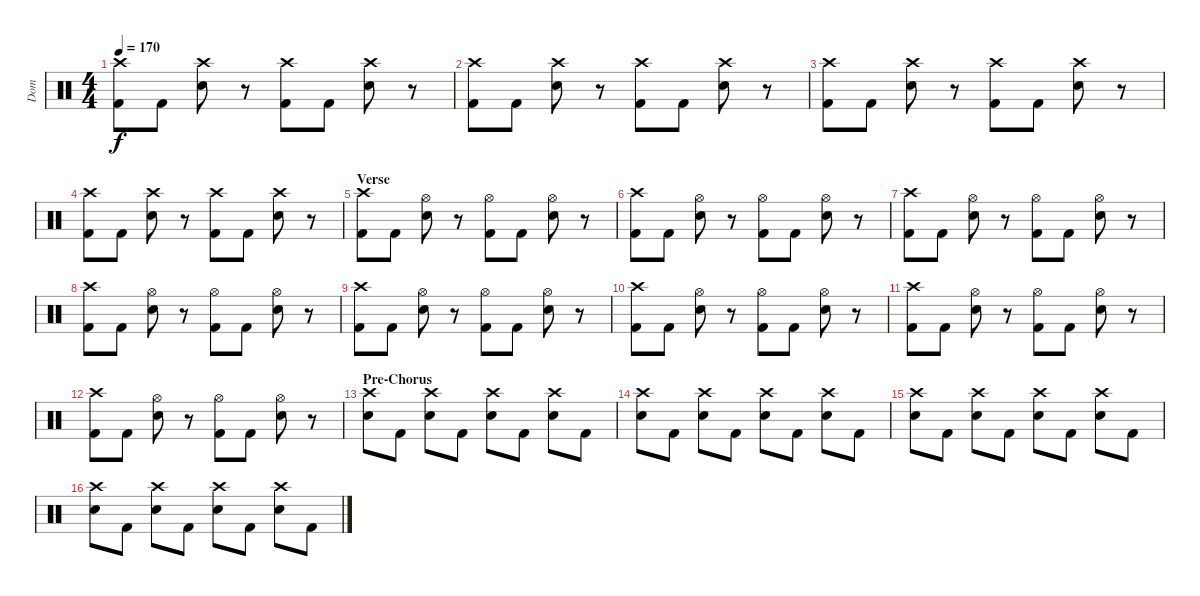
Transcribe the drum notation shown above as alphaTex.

\track ("Dom" "Dom") {instrument percussion}
\staff {score}
\articulation defaults
\ts (4 4)
\tempo 170
\clef neutral
\ks c
("Crash high (hit)" "Kick (hit) 2").8{dy f} "Kick (hit) 2".8 ("Crash high (hit)" "Electric Snare (hit)").8 r.8 ("Crash high (hit)" "Kick (hit) 2").8 "Kick (hit) 2".8 ("Crash high (hit)" "Electric Snare (hit)").8 r.8 |
("Crash high (hit)" "Kick (hit) 2").8 "Kick (hit) 2".8 ("Crash high (hit)" "Electric Snare (hit)").8 r.8 ("Crash high (hit)" "Kick (hit) 2").8 "Kick (hit) 2".8 ("Crash high (hit)" "Electric Snare (hit)").8 r.8 |
("Crash high (hit)" "Kick (hit) 2").8 "Kick (hit) 2".8 ("Crash high (hit)" "Electric Snare (hit)").8 r.8 ("Crash high (hit)" "Kick (hit) 2").8 "Kick (hit) 2".8 ("Crash high (hit)" "Electric Snare (hit)").8 r.8 |
("Crash high (hit)" "Kick (hit) 2").8 "Kick (hit) 2".8 ("Crash high (hit)" "Electric Snare (hit)").8 r.8 ("Crash high (hit)" "Kick (hit) 2").8 "Kick (hit) 2".8 ("Crash high (hit)" "Electric Snare (hit)").8 r.8 |
\section ("" "Verse")
("Crash high (hit)" "Kick (hit) 2").8 "Kick (hit) 2".8 ("Hi-Hat (open)" "Electric Snare (hit)").8 r.8 ("Hi-Hat (open)" "Kick (hit) 2").8 "Kick (hit) 2".8 ("Hi-Hat (open)" "Electric Snare (hit)").8 r.8 |
("Crash high (hit)" "Kick (hit) 2").8 "Kick (hit) 2".8 ("Hi-Hat (open)" "Electric Snare (hit)").8 r.8 ("Hi-Hat (open)" "Kick (hit) 2").8 "Kick (hit) 2".8 ("Hi-Hat (open)" "Electric Snare (hit)").8 r.8 |
("Crash high (hit)" "Kick (hit) 2").8 "Kick (hit) 2".8 ("Hi-Hat (open)" "Electric Snare (hit)").8 r.8 ("Hi-Hat (open)" "Kick (hit) 2").8 "Kick (hit) 2".8 ("Hi-Hat (open)" "Electric Snare (hit)").8 r.8 |
("Crash high (hit)" "Kick (hit) 2").8 "Kick (hit) 2".8 ("Hi-Hat (open)" "Electric Snare (hit)").8 r.8 ("Hi-Hat (open)" "Kick (hit) 2").8 "Kick (hit) 2".8 ("Hi-Hat (open)" "Electric Snare (hit)").8 r.8 |
("Crash high (hit)" "Kick (hit) 2").8 "Kick (hit) 2".8 ("Hi-Hat (open)" "Electric Snare (hit)").8 r.8 ("Hi-Hat (open)" "Kick (hit) 2").8 "Kick (hit) 2".8 ("Hi-Hat (open)" "Electric Snare (hit)").8 r.8 |
("Crash high (hit)" "Kick (hit) 2").8 "Kick (hit) 2".8 ("Hi-Hat (open)" "Electric Snare (hit)").8 r.8 ("Hi-Hat (open)" "Kick (hit) 2").8 "Kick (hit) 2".8 ("Hi-Hat (open)" "Electric Snare (hit)").8 r.8 |
("Crash high (hit)" "Kick (hit) 2").8 "Kick (hit) 2".8 ("Hi-Hat (open)" "Electric Snare (hit)").8 r.8 ("Hi-Hat (open)" "Kick (hit) 2").8 "Kick (hit) 2".8 ("Hi-Hat (open)" "Electric Snare (hit)").8 r.8 |
("Crash high (hit)" "Kick (hit) 2").8 "Kick (hit) 2".8 ("Hi-Hat (open)" "Electric Snare (hit)").8 r.8 ("Hi-Hat (open)" "Kick (hit) 2").8 "Kick (hit) 2".8 ("Hi-Hat (open)" "Electric Snare (hit)").8 r.8 |
\section ("" "Pre-Chorus")
("Crash high (hit)" "Electric Snare (hit)").8 "Kick (hit) 2".8 ("Crash high (hit)" "Electric Snare (hit)").8 "Kick (hit) 2".8 ("Crash high (hit)" "Electric Snare (hit)").8 "Kick (hit) 2".8 ("Crash high (hit)" "Electric Snare (hit)").8 "Kick (hit) 2".8 |
("Crash high (hit)" "Electric Snare (hit)").8 "Kick (hit) 2".8 ("Crash high (hit)" "Electric Snare (hit)").8 "Kick (hit) 2".8 ("Crash high (hit)" "Electric Snare (hit)").8 "Kick (hit) 2".8 ("Crash high (hit)" "Electric Snare (hit)").8 "Kick (hit) 2".8 |
("Crash high (hit)" "Electric Snare (hit)").8 "Kick (hit) 2".8 ("Crash high (hit)" "Electric Snare (hit)").8 "Kick (hit) 2".8 ("Crash high (hit)" "Electric Snare (hit)").8 "Kick (hit) 2".8 ("Crash high (hit)" "Electric Snare (hit)").8 "Kick (hit) 2".8 |
("Crash high (hit)" "Electric Snare (hit)").8 "Kick (hit) 2".8 ("Crash high (hit)" "Electric Snare (hit)").8 "Kick (hit) 2".8 ("Crash high (hit)" "Electric Snare (hit)").8 "Kick (hit) 2".8 ("Crash high (hit)" "Electric Snare (hit)").8 "Kick (hit) 2".8
